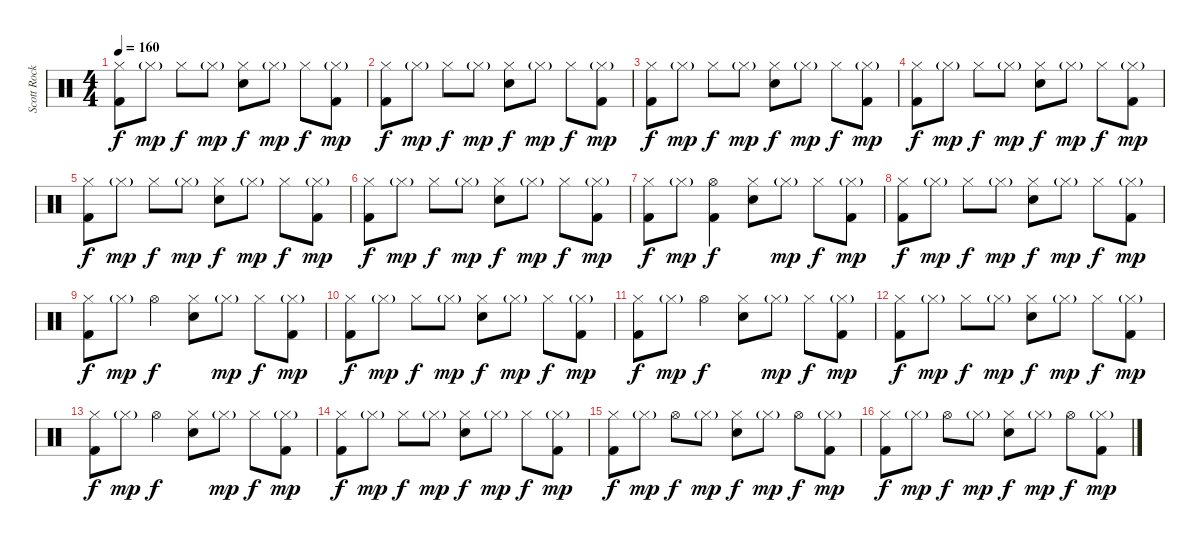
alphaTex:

\track ("Scott Rockenfield" "Scott Rock") {instrument percussion}
\staff {score}
\articulation defaults
\ts (4 4)
\tempo 160
\clef neutral
\ks c
("Hi-Hat (closed)" "Kick (hit) 2").8{dy f} "Hi-Hat (closed)"{g}.8{dy mp} "Hi-Hat (closed)".8{dy f} "Hi-Hat (closed)"{g}.8{dy mp} ("Hi-Hat (closed)" "Electric Snare (hit)").8{dy f} "Hi-Hat (closed)"{g}.8{dy mp} "Hi-Hat (closed)".8{dy f} ("Hi-Hat (closed)"{g} "Kick (hit) 2").8{dy mp} |
("Hi-Hat (closed)" "Kick (hit) 2").8{dy f} "Hi-Hat (closed)"{g}.8{dy mp} "Hi-Hat (closed)".8{dy f} "Hi-Hat (closed)"{g}.8{dy mp} ("Hi-Hat (closed)" "Electric Snare (hit)").8{dy f} "Hi-Hat (closed)"{g}.8{dy mp} "Hi-Hat (closed)".8{dy f} ("Hi-Hat (closed)"{g} "Kick (hit) 2").8{dy mp} |
("Hi-Hat (closed)" "Kick (hit) 2").8{dy f} "Hi-Hat (closed)"{g}.8{dy mp} "Hi-Hat (closed)".8{dy f} "Hi-Hat (closed)"{g}.8{dy mp} ("Hi-Hat (closed)" "Electric Snare (hit)").8{dy f} "Hi-Hat (closed)"{g}.8{dy mp} "Hi-Hat (closed)".8{dy f} ("Hi-Hat (closed)"{g} "Kick (hit) 2").8{dy mp} |
("Hi-Hat (closed)" "Kick (hit) 2").8{dy f} "Hi-Hat (closed)"{g}.8{dy mp} "Hi-Hat (closed)".8{dy f} "Hi-Hat (closed)"{g}.8{dy mp} ("Hi-Hat (closed)" "Electric Snare (hit)").8{dy f} "Hi-Hat (closed)"{g}.8{dy mp} "Hi-Hat (closed)".8{dy f} ("Hi-Hat (closed)"{g} "Kick (hit) 2").8{dy mp} |
("Hi-Hat (closed)" "Kick (hit) 2").8{dy f} "Hi-Hat (closed)"{g}.8{dy mp} "Hi-Hat (closed)".8{dy f} "Hi-Hat (closed)"{g}.8{dy mp} ("Hi-Hat (closed)" "Electric Snare (hit)").8{dy f} "Hi-Hat (closed)"{g}.8{dy mp} "Hi-Hat (closed)".8{dy f} ("Hi-Hat (closed)"{g} "Kick (hit) 2").8{dy mp} |
("Hi-Hat (closed)" "Kick (hit) 2").8{dy f} "Hi-Hat (closed)"{g}.8{dy mp} "Hi-Hat (closed)".8{dy f} "Hi-Hat (closed)"{g}.8{dy mp} ("Hi-Hat (closed)" "Electric Snare (hit)").8{dy f} "Hi-Hat (closed)"{g}.8{dy mp} "Hi-Hat (closed)".8{dy f} ("Hi-Hat (closed)"{g} "Kick (hit) 2").8{dy mp} |
("Hi-Hat (closed)" "Kick (hit) 2").8{dy f} "Hi-Hat (closed)"{g}.8{dy mp} ("Hi-Hat (open)" "Kick (hit) 2").4{dy f} ("Hi-Hat (closed)" "Electric Snare (hit)").8 "Hi-Hat (closed)"{g}.8{dy mp} "Hi-Hat (closed)".8{dy f} ("Hi-Hat (closed)"{g} "Kick (hit) 2").8{dy mp} |
("Hi-Hat (closed)" "Kick (hit) 2").8{dy f} "Hi-Hat (closed)"{g}.8{dy mp} "Hi-Hat (closed)".8{dy f} "Hi-Hat (closed)"{g}.8{dy mp} ("Hi-Hat (closed)" "Electric Snare (hit)").8{dy f} "Hi-Hat (closed)"{g}.8{dy mp} "Hi-Hat (closed)".8{dy f} ("Hi-Hat (closed)"{g} "Kick (hit) 2").8{dy mp} |
("Hi-Hat (closed)" "Kick (hit) 2").8{dy f} "Hi-Hat (closed)"{g}.8{dy mp} "Hi-Hat (open)".4{dy f} ("Hi-Hat (closed)" "Electric Snare (hit)").8 "Hi-Hat (closed)"{g}.8{dy mp} "Hi-Hat (closed)".8{dy f} ("Hi-Hat (closed)"{g} "Kick (hit) 2").8{dy mp} |
("Hi-Hat (closed)" "Kick (hit) 2").8{dy f} "Hi-Hat (closed)"{g}.8{dy mp} "Hi-Hat (closed)".8{dy f} "Hi-Hat (closed)"{g}.8{dy mp} ("Hi-Hat (closed)" "Electric Snare (hit)").8{dy f} "Hi-Hat (closed)"{g}.8{dy mp} "Hi-Hat (closed)".8{dy f} ("Hi-Hat (closed)"{g} "Kick (hit) 2").8{dy mp} |
("Hi-Hat (closed)" "Kick (hit) 2").8{dy f} "Hi-Hat (closed)"{g}.8{dy mp} "Hi-Hat (open)".4{dy f} ("Hi-Hat (closed)" "Electric Snare (hit)").8 "Hi-Hat (closed)"{g}.8{dy mp} "Hi-Hat (closed)".8{dy f} ("Hi-Hat (closed)"{g} "Kick (hit) 2").8{dy mp} |
("Hi-Hat (closed)" "Kick (hit) 2").8{dy f} "Hi-Hat (closed)"{g}.8{dy mp} "Hi-Hat (closed)".8{dy f} "Hi-Hat (closed)"{g}.8{dy mp} ("Hi-Hat (closed)" "Electric Snare (hit)").8{dy f} "Hi-Hat (closed)"{g}.8{dy mp} "Hi-Hat (closed)".8{dy f} ("Hi-Hat (closed)"{g} "Kick (hit) 2").8{dy mp} |
("Hi-Hat (closed)" "Kick (hit) 2").8{dy f} "Hi-Hat (closed)"{g}.8{dy mp} "Hi-Hat (open)".4{dy f} ("Hi-Hat (closed)" "Electric Snare (hit)").8 "Hi-Hat (closed)"{g}.8{dy mp} "Hi-Hat (closed)".8{dy f} ("Hi-Hat (closed)"{g} "Kick (hit) 2").8{dy mp} |
("Hi-Hat (closed)" "Kick (hit) 2").8{dy f} "Hi-Hat (closed)"{g}.8{dy mp} "Hi-Hat (closed)".8{dy f} "Hi-Hat (closed)"{g}.8{dy mp} ("Hi-Hat (closed)" "Electric Snare (hit)").8{dy f} "Hi-Hat (closed)"{g}.8{dy mp} "Hi-Hat (closed)".8{dy f} ("Hi-Hat (closed)"{g} "Kick (hit) 2").8{dy mp} |
("Hi-Hat (closed)" "Kick (hit) 2").8{dy f} "Hi-Hat (closed)"{g}.8{dy mp} "Hi-Hat (open)".8{dy f} "Hi-Hat (closed)"{g}.8{dy mp} ("Hi-Hat (closed)" "Electric Snare (hit)").8{dy f} "Hi-Hat (closed)"{g}.8{dy mp} "Hi-Hat (open)".8{dy f} ("Hi-Hat (closed)"{g} "Kick (hit) 2").8{dy mp} |
("Hi-Hat (closed)" "Kick (hit) 2").8{dy f} "Hi-Hat (closed)"{g}.8{dy mp} "Hi-Hat (open)".8{dy f} "Hi-Hat (closed)"{g}.8{dy mp} ("Hi-Hat (closed)" "Electric Snare (hit)").8{dy f} "Hi-Hat (closed)"{g}.8{dy mp} "Hi-Hat (open)".8{dy f} ("Hi-Hat (closed)"{g} "Kick (hit) 2").8{dy mp}
